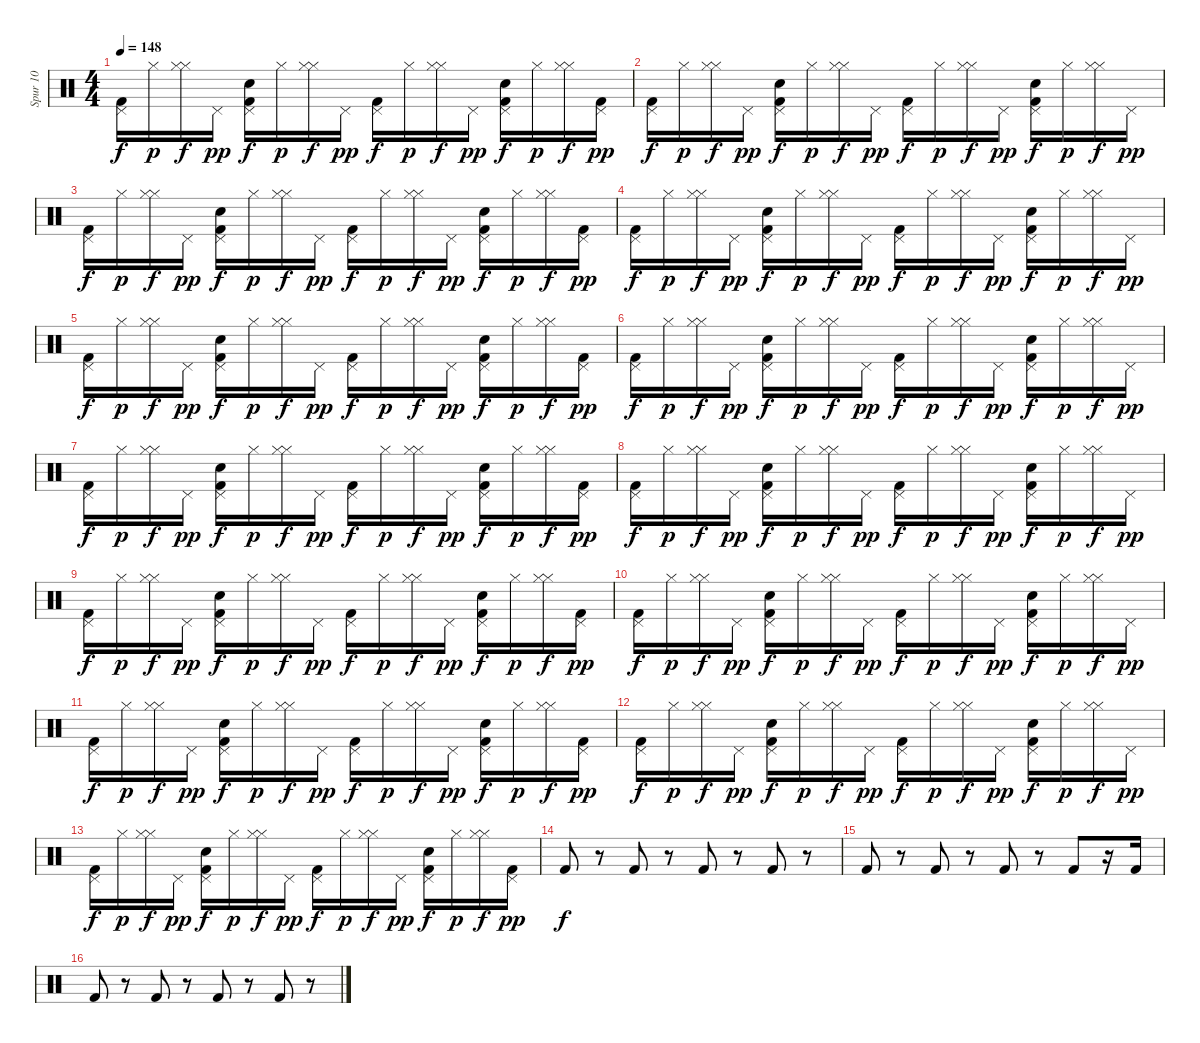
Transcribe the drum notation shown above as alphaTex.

\track ("Spur 10" "Spur 10") {instrument percussion}
\staff {score}
\articulation defaults
\ts (4 4)
\tempo 148
\clef neutral
\ks c
("Pedal Hi-Hat (hit)" "Kick (hit) 2").16{dy f} "Hi-Hat (closed)".16{dy p} ("Hi-Hat (closed)" "Hi-Hat (closed)").16{dy f} "Pedal Hi-Hat (hit)".16{dy pp} ("Pedal Hi-Hat (hit)" "Snare (hit) 2" "Kick (hit) 2").16{dy f} "Hi-Hat (closed)".16{dy p} ("Hi-Hat (closed)" "Hi-Hat (closed)").16{dy f} "Pedal Hi-Hat (hit)".16{dy pp} ("Pedal Hi-Hat (hit)" "Kick (hit) 2").16{dy f} "Hi-Hat (closed)".16{dy p} ("Hi-Hat (closed)" "Hi-Hat (closed)").16{dy f} "Pedal Hi-Hat (hit)".16{dy pp} ("Pedal Hi-Hat (hit)" "Kick (hit) 2" "Snare (hit) 2").16{dy f} "Hi-Hat (closed)".16{dy p} ("Hi-Hat (closed)" "Hi-Hat (closed)").16{dy f} ("Kick (hit) 2" "Pedal Hi-Hat (hit)").16{dy pp} |
("Pedal Hi-Hat (hit)" "Kick (hit) 2").16{dy f} "Hi-Hat (closed)".16{dy p} ("Hi-Hat (closed)" "Hi-Hat (closed)").16{dy f} "Pedal Hi-Hat (hit)".16{dy pp} ("Pedal Hi-Hat (hit)" "Kick (hit) 2" "Snare (hit) 2").16{dy f} "Hi-Hat (closed)".16{dy p} ("Hi-Hat (closed)" "Hi-Hat (closed)").16{dy f} "Pedal Hi-Hat (hit)".16{dy pp} ("Pedal Hi-Hat (hit)" "Kick (hit) 2").16{dy f} "Hi-Hat (closed)".16{dy p} ("Hi-Hat (closed)" "Hi-Hat (closed)").16{dy f} "Pedal Hi-Hat (hit)".16{dy pp} ("Pedal Hi-Hat (hit)" "Kick (hit) 2" "Snare (hit) 2").16{dy f} "Hi-Hat (closed)".16{dy p} ("Hi-Hat (closed)" "Hi-Hat (closed)").16{dy f} "Pedal Hi-Hat (hit)".16{dy pp} |
("Pedal Hi-Hat (hit)" "Kick (hit) 2").16{dy f} "Hi-Hat (closed)".16{dy p} ("Hi-Hat (closed)" "Hi-Hat (closed)").16{dy f} "Pedal Hi-Hat (hit)".16{dy pp} ("Pedal Hi-Hat (hit)" "Snare (hit) 2" "Kick (hit) 2").16{dy f} "Hi-Hat (closed)".16{dy p} ("Hi-Hat (closed)" "Hi-Hat (closed)").16{dy f} "Pedal Hi-Hat (hit)".16{dy pp} ("Pedal Hi-Hat (hit)" "Kick (hit) 2").16{dy f} "Hi-Hat (closed)".16{dy p} ("Hi-Hat (closed)" "Hi-Hat (closed)").16{dy f} "Pedal Hi-Hat (hit)".16{dy pp} ("Pedal Hi-Hat (hit)" "Snare (hit) 2" "Kick (hit) 2").16{dy f} "Hi-Hat (closed)".16{dy p} ("Hi-Hat (closed)" "Hi-Hat (closed)").16{dy f} ("Kick (hit) 2" "Pedal Hi-Hat (hit)").16{dy pp} |
("Pedal Hi-Hat (hit)" "Kick (hit) 2").16{dy f} "Hi-Hat (closed)".16{dy p} ("Hi-Hat (closed)" "Hi-Hat (closed)").16{dy f} "Pedal Hi-Hat (hit)".16{dy pp} ("Pedal Hi-Hat (hit)" "Kick (hit) 2" "Snare (hit) 2").16{dy f} "Hi-Hat (closed)".16{dy p} ("Hi-Hat (closed)" "Hi-Hat (closed)").16{dy f} "Pedal Hi-Hat (hit)".16{dy pp} ("Pedal Hi-Hat (hit)" "Kick (hit) 2").16{dy f} "Hi-Hat (closed)".16{dy p} ("Hi-Hat (closed)" "Hi-Hat (closed)").16{dy f} "Pedal Hi-Hat (hit)".16{dy pp} ("Pedal Hi-Hat (hit)" "Snare (hit) 2" "Kick (hit) 2").16{dy f} "Hi-Hat (closed)".16{dy p} ("Hi-Hat (closed)" "Hi-Hat (closed)").16{dy f} "Pedal Hi-Hat (hit)".16{dy pp} |
("Pedal Hi-Hat (hit)" "Kick (hit) 2").16{dy f} "Hi-Hat (closed)".16{dy p} ("Hi-Hat (closed)" "Hi-Hat (closed)").16{dy f} "Pedal Hi-Hat (hit)".16{dy pp} ("Pedal Hi-Hat (hit)" "Kick (hit) 2" "Snare (hit) 2").16{dy f} "Hi-Hat (closed)".16{dy p} ("Hi-Hat (closed)" "Hi-Hat (closed)").16{dy f} "Pedal Hi-Hat (hit)".16{dy pp} ("Pedal Hi-Hat (hit)" "Kick (hit) 2").16{dy f} "Hi-Hat (closed)".16{dy p} ("Hi-Hat (closed)" "Hi-Hat (closed)").16{dy f} "Pedal Hi-Hat (hit)".16{dy pp} ("Pedal Hi-Hat (hit)" "Snare (hit) 2" "Kick (hit) 2").16{dy f} "Hi-Hat (closed)".16{dy p} ("Hi-Hat (closed)" "Hi-Hat (closed)").16{dy f} ("Kick (hit) 2" "Pedal Hi-Hat (hit)").16{dy pp} |
("Pedal Hi-Hat (hit)" "Kick (hit) 2").16{dy f} "Hi-Hat (closed)".16{dy p} ("Hi-Hat (closed)" "Hi-Hat (closed)").16{dy f} "Pedal Hi-Hat (hit)".16{dy pp} ("Pedal Hi-Hat (hit)" "Snare (hit) 2" "Kick (hit) 2").16{dy f} "Hi-Hat (closed)".16{dy p} ("Hi-Hat (closed)" "Hi-Hat (closed)").16{dy f} "Pedal Hi-Hat (hit)".16{dy pp} ("Pedal Hi-Hat (hit)" "Kick (hit) 2").16{dy f} "Hi-Hat (closed)".16{dy p} ("Hi-Hat (closed)" "Hi-Hat (closed)").16{dy f} "Pedal Hi-Hat (hit)".16{dy pp} ("Pedal Hi-Hat (hit)" "Snare (hit) 2" "Kick (hit) 2").16{dy f} "Hi-Hat (closed)".16{dy p} ("Hi-Hat (closed)" "Hi-Hat (closed)").16{dy f} "Pedal Hi-Hat (hit)".16{dy pp} |
("Pedal Hi-Hat (hit)" "Kick (hit) 2").16{dy f} "Hi-Hat (closed)".16{dy p} ("Hi-Hat (closed)" "Hi-Hat (closed)").16{dy f} "Pedal Hi-Hat (hit)".16{dy pp} ("Pedal Hi-Hat (hit)" "Snare (hit) 2" "Kick (hit) 2").16{dy f} "Hi-Hat (closed)".16{dy p} ("Hi-Hat (closed)" "Hi-Hat (closed)").16{dy f} "Pedal Hi-Hat (hit)".16{dy pp} ("Pedal Hi-Hat (hit)" "Kick (hit) 2").16{dy f} "Hi-Hat (closed)".16{dy p} ("Hi-Hat (closed)" "Hi-Hat (closed)").16{dy f} "Pedal Hi-Hat (hit)".16{dy pp} ("Pedal Hi-Hat (hit)" "Kick (hit) 2" "Snare (hit) 2").16{dy f} "Hi-Hat (closed)".16{dy p} ("Hi-Hat (closed)" "Hi-Hat (closed)").16{dy f} ("Kick (hit) 2" "Pedal Hi-Hat (hit)").16{dy pp} |
("Pedal Hi-Hat (hit)" "Kick (hit) 2").16{dy f} "Hi-Hat (closed)".16{dy p} ("Hi-Hat (closed)" "Hi-Hat (closed)").16{dy f} "Pedal Hi-Hat (hit)".16{dy pp} ("Pedal Hi-Hat (hit)" "Kick (hit) 2" "Snare (hit) 2").16{dy f} "Hi-Hat (closed)".16{dy p} ("Hi-Hat (closed)" "Hi-Hat (closed)").16{dy f} "Pedal Hi-Hat (hit)".16{dy pp} ("Pedal Hi-Hat (hit)" "Kick (hit) 2").16{dy f} "Hi-Hat (closed)".16{dy p} ("Hi-Hat (closed)" "Hi-Hat (closed)").16{dy f} "Pedal Hi-Hat (hit)".16{dy pp} ("Pedal Hi-Hat (hit)" "Kick (hit) 2" "Snare (hit) 2").16{dy f} "Hi-Hat (closed)".16{dy p} ("Hi-Hat (closed)" "Hi-Hat (closed)").16{dy f} "Pedal Hi-Hat (hit)".16{dy pp} |
("Pedal Hi-Hat (hit)" "Kick (hit) 2").16{dy f} "Hi-Hat (closed)".16{dy p} ("Hi-Hat (closed)" "Hi-Hat (closed)").16{dy f} "Pedal Hi-Hat (hit)".16{dy pp} ("Pedal Hi-Hat (hit)" "Kick (hit) 2" "Snare (hit) 2").16{dy f} "Hi-Hat (closed)".16{dy p} ("Hi-Hat (closed)" "Hi-Hat (closed)").16{dy f} "Pedal Hi-Hat (hit)".16{dy pp} ("Pedal Hi-Hat (hit)" "Kick (hit) 2").16{dy f} "Hi-Hat (closed)".16{dy p} ("Hi-Hat (closed)" "Hi-Hat (closed)").16{dy f} "Pedal Hi-Hat (hit)".16{dy pp} ("Pedal Hi-Hat (hit)" "Kick (hit) 2" "Snare (hit) 2").16{dy f} "Hi-Hat (closed)".16{dy p} ("Hi-Hat (closed)" "Hi-Hat (closed)").16{dy f} ("Kick (hit) 2" "Pedal Hi-Hat (hit)").16{dy pp} |
("Pedal Hi-Hat (hit)" "Kick (hit) 2").16{dy f} "Hi-Hat (closed)".16{dy p} ("Hi-Hat (closed)" "Hi-Hat (closed)").16{dy f} "Pedal Hi-Hat (hit)".16{dy pp} ("Pedal Hi-Hat (hit)" "Snare (hit) 2" "Kick (hit) 2").16{dy f} "Hi-Hat (closed)".16{dy p} ("Hi-Hat (closed)" "Hi-Hat (closed)").16{dy f} "Pedal Hi-Hat (hit)".16{dy pp} ("Pedal Hi-Hat (hit)" "Kick (hit) 2").16{dy f} "Hi-Hat (closed)".16{dy p} ("Hi-Hat (closed)" "Hi-Hat (closed)").16{dy f} "Pedal Hi-Hat (hit)".16{dy pp} ("Pedal Hi-Hat (hit)" "Kick (hit) 2" "Snare (hit) 2").16{dy f} "Hi-Hat (closed)".16{dy p} ("Hi-Hat (closed)" "Hi-Hat (closed)").16{dy f} "Pedal Hi-Hat (hit)".16{dy pp} |
("Pedal Hi-Hat (hit)" "Kick (hit) 2").16{dy f} "Hi-Hat (closed)".16{dy p} ("Hi-Hat (closed)" "Hi-Hat (closed)").16{dy f} "Pedal Hi-Hat (hit)".16{dy pp} ("Pedal Hi-Hat (hit)" "Kick (hit) 2" "Snare (hit) 2").16{dy f} "Hi-Hat (closed)".16{dy p} ("Hi-Hat (closed)" "Hi-Hat (closed)").16{dy f} "Pedal Hi-Hat (hit)".16{dy pp} ("Pedal Hi-Hat (hit)" "Kick (hit) 2").16{dy f} "Hi-Hat (closed)".16{dy p} ("Hi-Hat (closed)" "Hi-Hat (closed)").16{dy f} "Pedal Hi-Hat (hit)".16{dy pp} ("Pedal Hi-Hat (hit)" "Kick (hit) 2" "Snare (hit) 2").16{dy f} "Hi-Hat (closed)".16{dy p} ("Hi-Hat (closed)" "Hi-Hat (closed)").16{dy f} ("Kick (hit) 2" "Pedal Hi-Hat (hit)").16{dy pp} |
("Pedal Hi-Hat (hit)" "Kick (hit) 2").16{dy f} "Hi-Hat (closed)".16{dy p} ("Hi-Hat (closed)" "Hi-Hat (closed)").16{dy f} "Pedal Hi-Hat (hit)".16{dy pp} ("Pedal Hi-Hat (hit)" "Kick (hit) 2" "Snare (hit) 2").16{dy f} "Hi-Hat (closed)".16{dy p} ("Hi-Hat (closed)" "Hi-Hat (closed)").16{dy f} "Pedal Hi-Hat (hit)".16{dy pp} ("Pedal Hi-Hat (hit)" "Kick (hit) 2").16{dy f} "Hi-Hat (closed)".16{dy p} ("Hi-Hat (closed)" "Hi-Hat (closed)").16{dy f} "Pedal Hi-Hat (hit)".16{dy pp} ("Pedal Hi-Hat (hit)" "Snare (hit) 2" "Kick (hit) 2").16{dy f} "Hi-Hat (closed)".16{dy p} ("Hi-Hat (closed)" "Hi-Hat (closed)").16{dy f} "Pedal Hi-Hat (hit)".16{dy pp} |
("Pedal Hi-Hat (hit)" "Kick (hit) 2").16{dy f} "Hi-Hat (closed)".16{dy p} ("Hi-Hat (closed)" "Hi-Hat (closed)").16{dy f} "Pedal Hi-Hat (hit)".16{dy pp} ("Pedal Hi-Hat (hit)" "Snare (hit) 2" "Kick (hit) 2").16{dy f} "Hi-Hat (closed)".16{dy p} ("Hi-Hat (closed)" "Hi-Hat (closed)").16{dy f} "Pedal Hi-Hat (hit)".16{dy pp} ("Pedal Hi-Hat (hit)" "Kick (hit) 2").16{dy f} "Hi-Hat (closed)".16{dy p} ("Hi-Hat (closed)" "Hi-Hat (closed)").16{dy f} "Pedal Hi-Hat (hit)".16{dy pp} ("Pedal Hi-Hat (hit)" "Kick (hit) 2" "Snare (hit) 2").16{dy f} "Hi-Hat (closed)".16{dy p} ("Hi-Hat (closed)" "Hi-Hat (closed)").16{dy f} ("Kick (hit) 2" "Pedal Hi-Hat (hit)").16{dy pp} |
"Kick (hit) 2".8{dy f} r.8 "Kick (hit) 2".8 r.8 "Kick (hit) 2".8 r.8 "Kick (hit) 2".8 r.8 |
"Kick (hit) 2".8 r.8 "Kick (hit) 2".8 r.8 "Kick (hit) 2".8 r.8 "Kick (hit) 2".8 r.16 "Kick (hit) 2".16 |
"Kick (hit) 2".8 r.8 "Kick (hit) 2".8 r.8 "Kick (hit) 2".8 r.8 "Kick (hit) 2".8 r.8
